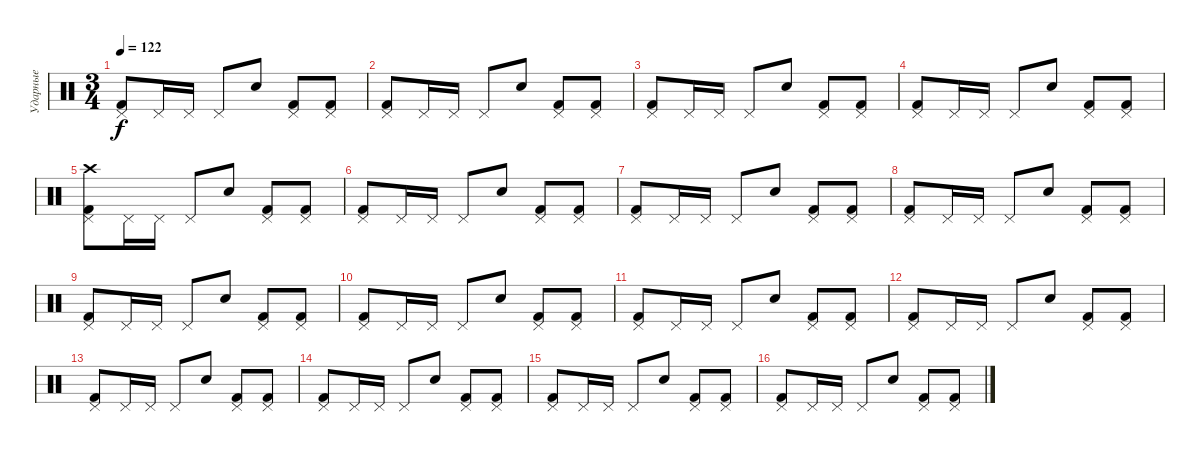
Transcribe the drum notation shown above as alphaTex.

\track ("Ударные" "Ударные") {instrument percussion}
\staff {score}
\articulation defaults
\ts (3 4)
\tempo 122
\clef neutral
\ks c
("Kick (hit) 2" "Pedal Hi-Hat (hit)").8{dy f} "Pedal Hi-Hat (hit)".16 "Pedal Hi-Hat (hit)".16 "Pedal Hi-Hat (hit)".8 "Electric Snare (hit)".8 ("Kick (hit) 2" "Pedal Hi-Hat (hit)").8 ("Kick (hit) 2" "Pedal Hi-Hat (hit)").8 |
("Kick (hit) 2" "Pedal Hi-Hat (hit)").8 "Pedal Hi-Hat (hit)".16 "Pedal Hi-Hat (hit)".16 "Pedal Hi-Hat (hit)".8 "Electric Snare (hit)".8 ("Kick (hit) 2" "Pedal Hi-Hat (hit)").8 ("Kick (hit) 2" "Pedal Hi-Hat (hit)").8 |
("Kick (hit) 2" "Pedal Hi-Hat (hit)").8 "Pedal Hi-Hat (hit)".16 "Pedal Hi-Hat (hit)".16 "Pedal Hi-Hat (hit)".8 "Electric Snare (hit)".8 ("Kick (hit) 2" "Pedal Hi-Hat (hit)").8 ("Kick (hit) 2" "Pedal Hi-Hat (hit)").8 |
("Kick (hit) 2" "Pedal Hi-Hat (hit)").8 "Pedal Hi-Hat (hit)".16 "Pedal Hi-Hat (hit)".16 "Pedal Hi-Hat (hit)".8 "Electric Snare (hit)".8 ("Kick (hit) 2" "Pedal Hi-Hat (hit)").8 ("Kick (hit) 2" "Pedal Hi-Hat (hit)").8 |
("Crash high (hit)" "Kick (hit) 2" "Pedal Hi-Hat (hit)").8 "Pedal Hi-Hat (hit)".16 "Pedal Hi-Hat (hit)".16 "Pedal Hi-Hat (hit)".8 "Electric Snare (hit)".8 ("Kick (hit) 2" "Pedal Hi-Hat (hit)").8 ("Kick (hit) 2" "Pedal Hi-Hat (hit)").8 |
("Kick (hit) 2" "Pedal Hi-Hat (hit)").8 "Pedal Hi-Hat (hit)".16 "Pedal Hi-Hat (hit)".16 "Pedal Hi-Hat (hit)".8 "Electric Snare (hit)".8 ("Kick (hit) 2" "Pedal Hi-Hat (hit)").8 ("Kick (hit) 2" "Pedal Hi-Hat (hit)").8 |
("Kick (hit) 2" "Pedal Hi-Hat (hit)").8 "Pedal Hi-Hat (hit)".16 "Pedal Hi-Hat (hit)".16 "Pedal Hi-Hat (hit)".8 "Electric Snare (hit)".8 ("Kick (hit) 2" "Pedal Hi-Hat (hit)").8 ("Kick (hit) 2" "Pedal Hi-Hat (hit)").8 |
("Kick (hit) 2" "Pedal Hi-Hat (hit)").8 "Pedal Hi-Hat (hit)".16 "Pedal Hi-Hat (hit)".16 "Pedal Hi-Hat (hit)".8 "Electric Snare (hit)".8 ("Kick (hit) 2" "Pedal Hi-Hat (hit)").8 ("Kick (hit) 2" "Pedal Hi-Hat (hit)").8 |
("Kick (hit) 2" "Pedal Hi-Hat (hit)").8 "Pedal Hi-Hat (hit)".16 "Pedal Hi-Hat (hit)".16 "Pedal Hi-Hat (hit)".8 "Electric Snare (hit)".8 ("Kick (hit) 2" "Pedal Hi-Hat (hit)").8 ("Kick (hit) 2" "Pedal Hi-Hat (hit)").8 |
("Kick (hit) 2" "Pedal Hi-Hat (hit)").8 "Pedal Hi-Hat (hit)".16 "Pedal Hi-Hat (hit)".16 "Pedal Hi-Hat (hit)".8 "Electric Snare (hit)".8 ("Kick (hit) 2" "Pedal Hi-Hat (hit)").8 ("Kick (hit) 2" "Pedal Hi-Hat (hit)").8 |
("Kick (hit) 2" "Pedal Hi-Hat (hit)").8 "Pedal Hi-Hat (hit)".16 "Pedal Hi-Hat (hit)".16 "Pedal Hi-Hat (hit)".8 "Electric Snare (hit)".8 ("Kick (hit) 2" "Pedal Hi-Hat (hit)").8 ("Kick (hit) 2" "Pedal Hi-Hat (hit)").8 |
("Kick (hit) 2" "Pedal Hi-Hat (hit)").8 "Pedal Hi-Hat (hit)".16 "Pedal Hi-Hat (hit)".16 "Pedal Hi-Hat (hit)".8 "Electric Snare (hit)".8 ("Kick (hit) 2" "Pedal Hi-Hat (hit)").8 ("Kick (hit) 2" "Pedal Hi-Hat (hit)").8 |
("Kick (hit) 2" "Pedal Hi-Hat (hit)").8 "Pedal Hi-Hat (hit)".16 "Pedal Hi-Hat (hit)".16 "Pedal Hi-Hat (hit)".8 "Electric Snare (hit)".8 ("Kick (hit) 2" "Pedal Hi-Hat (hit)").8 ("Kick (hit) 2" "Pedal Hi-Hat (hit)").8 |
("Kick (hit) 2" "Pedal Hi-Hat (hit)").8 "Pedal Hi-Hat (hit)".16 "Pedal Hi-Hat (hit)".16 "Pedal Hi-Hat (hit)".8 "Electric Snare (hit)".8 ("Kick (hit) 2" "Pedal Hi-Hat (hit)").8 ("Kick (hit) 2" "Pedal Hi-Hat (hit)").8 |
("Kick (hit) 2" "Pedal Hi-Hat (hit)").8 "Pedal Hi-Hat (hit)".16 "Pedal Hi-Hat (hit)".16 "Pedal Hi-Hat (hit)".8 "Electric Snare (hit)".8 ("Kick (hit) 2" "Pedal Hi-Hat (hit)").8 ("Kick (hit) 2" "Pedal Hi-Hat (hit)").8 |
("Kick (hit) 2" "Pedal Hi-Hat (hit)").8 "Pedal Hi-Hat (hit)".16 "Pedal Hi-Hat (hit)".16 "Pedal Hi-Hat (hit)".8 "Electric Snare (hit)".8 ("Kick (hit) 2" "Pedal Hi-Hat (hit)").8 ("Kick (hit) 2" "Pedal Hi-Hat (hit)").8
